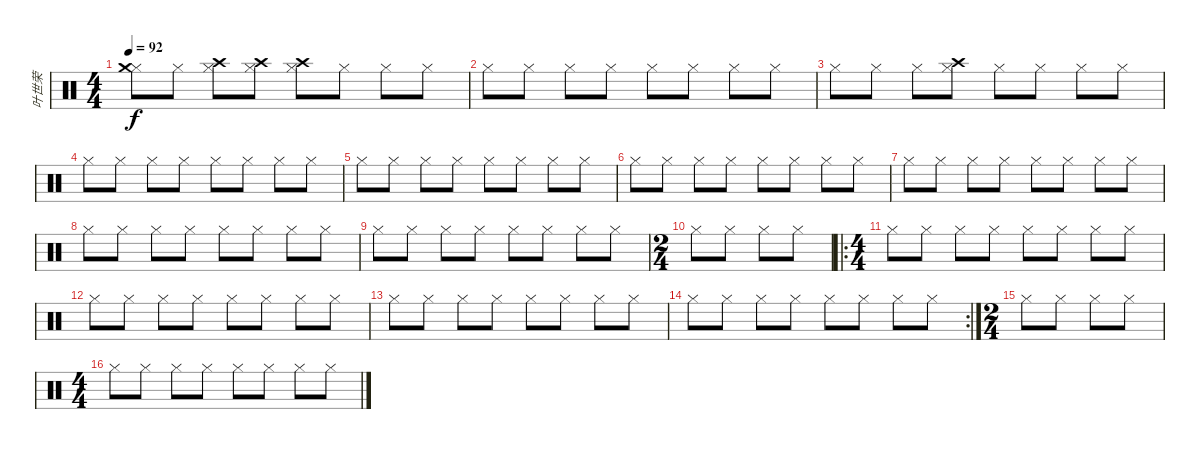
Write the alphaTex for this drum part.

\track ("叶世荣" "叶世荣") {instrument percussion}
\staff {score}
\articulation defaults
\ts (4 4)
\tempo 92
\clef neutral
\ks c
("Hi-Hat (closed)" "Crash medium (hit)").8{dy f} "Hi-Hat (closed)".8 ("Hi-Hat (closed)" "Crash high (hit)").8 ("Hi-Hat (closed)" "Crash high (hit)").8 ("Hi-Hat (closed)" "Crash high (hit)").8 "Hi-Hat (closed)".8 "Hi-Hat (closed)".8 "Hi-Hat (closed)".8 |
"Hi-Hat (closed)".8 "Hi-Hat (closed)".8 "Hi-Hat (closed)".8 "Hi-Hat (closed)".8 "Hi-Hat (closed)".8 "Hi-Hat (closed)".8 "Hi-Hat (closed)".8 "Hi-Hat (closed)".8 |
"Hi-Hat (closed)".8 "Hi-Hat (closed)".8 "Hi-Hat (closed)".8 ("Hi-Hat (closed)" "Crash high (hit)").8 "Hi-Hat (closed)".8 "Hi-Hat (closed)".8 "Hi-Hat (closed)".8 "Hi-Hat (closed)".8 |
"Hi-Hat (closed)".8 "Hi-Hat (closed)".8 "Hi-Hat (closed)".8 "Hi-Hat (closed)".8 "Hi-Hat (closed)".8 "Hi-Hat (closed)".8 "Hi-Hat (closed)".8 "Hi-Hat (closed)".8 |
"Hi-Hat (closed)".8 "Hi-Hat (closed)".8 "Hi-Hat (closed)".8 "Hi-Hat (closed)".8 "Hi-Hat (closed)".8 "Hi-Hat (closed)".8 "Hi-Hat (closed)".8 "Hi-Hat (closed)".8 |
"Hi-Hat (closed)".8 "Hi-Hat (closed)".8 "Hi-Hat (closed)".8 "Hi-Hat (closed)".8 "Hi-Hat (closed)".8 "Hi-Hat (closed)".8 "Hi-Hat (closed)".8 "Hi-Hat (closed)".8 |
"Hi-Hat (closed)".8 "Hi-Hat (closed)".8 "Hi-Hat (closed)".8 "Hi-Hat (closed)".8 "Hi-Hat (closed)".8 "Hi-Hat (closed)".8 "Hi-Hat (closed)".8 "Hi-Hat (closed)".8 |
"Hi-Hat (closed)".8 "Hi-Hat (closed)".8 "Hi-Hat (closed)".8 "Hi-Hat (closed)".8 "Hi-Hat (closed)".8 "Hi-Hat (closed)".8 "Hi-Hat (closed)".8 "Hi-Hat (closed)".8 |
"Hi-Hat (closed)".8 "Hi-Hat (closed)".8 "Hi-Hat (closed)".8 "Hi-Hat (closed)".8 "Hi-Hat (closed)".8 "Hi-Hat (closed)".8 "Hi-Hat (closed)".8 "Hi-Hat (closed)".8 |
\ts (2 4)
"Hi-Hat (closed)".8 "Hi-Hat (closed)".8 "Hi-Hat (closed)".8 "Hi-Hat (closed)".8 |
\ro
\ts (4 4)
"Hi-Hat (closed)".8 "Hi-Hat (closed)".8 "Hi-Hat (closed)".8 "Hi-Hat (closed)".8 "Hi-Hat (closed)".8 "Hi-Hat (closed)".8 "Hi-Hat (closed)".8 "Hi-Hat (closed)".8 |
"Hi-Hat (closed)".8 "Hi-Hat (closed)".8 "Hi-Hat (closed)".8 "Hi-Hat (closed)".8 "Hi-Hat (closed)".8 "Hi-Hat (closed)".8 "Hi-Hat (closed)".8 "Hi-Hat (closed)".8 |
"Hi-Hat (closed)".8 "Hi-Hat (closed)".8 "Hi-Hat (closed)".8 "Hi-Hat (closed)".8 "Hi-Hat (closed)".8 "Hi-Hat (closed)".8 "Hi-Hat (closed)".8 "Hi-Hat (closed)".8 |
\rc 2 "Hi-Hat (closed)".8 "Hi-Hat (closed)".8 "Hi-Hat (closed)".8 "Hi-Hat (closed)".8 "Hi-Hat (closed)".8 "Hi-Hat (closed)".8 "Hi-Hat (closed)".8 "Hi-Hat (closed)".8
|
\ts (2 4)
"Hi-Hat (closed)".8 "Hi-Hat (closed)".8 "Hi-Hat (closed)".8 "Hi-Hat (closed)".8 |
\ts (4 4)
"Hi-Hat (closed)".8 "Hi-Hat (closed)".8 "Hi-Hat (closed)".8 "Hi-Hat (closed)".8 "Hi-Hat (closed)".8 "Hi-Hat (closed)".8 "Hi-Hat (closed)".8 "Hi-Hat (closed)".8
